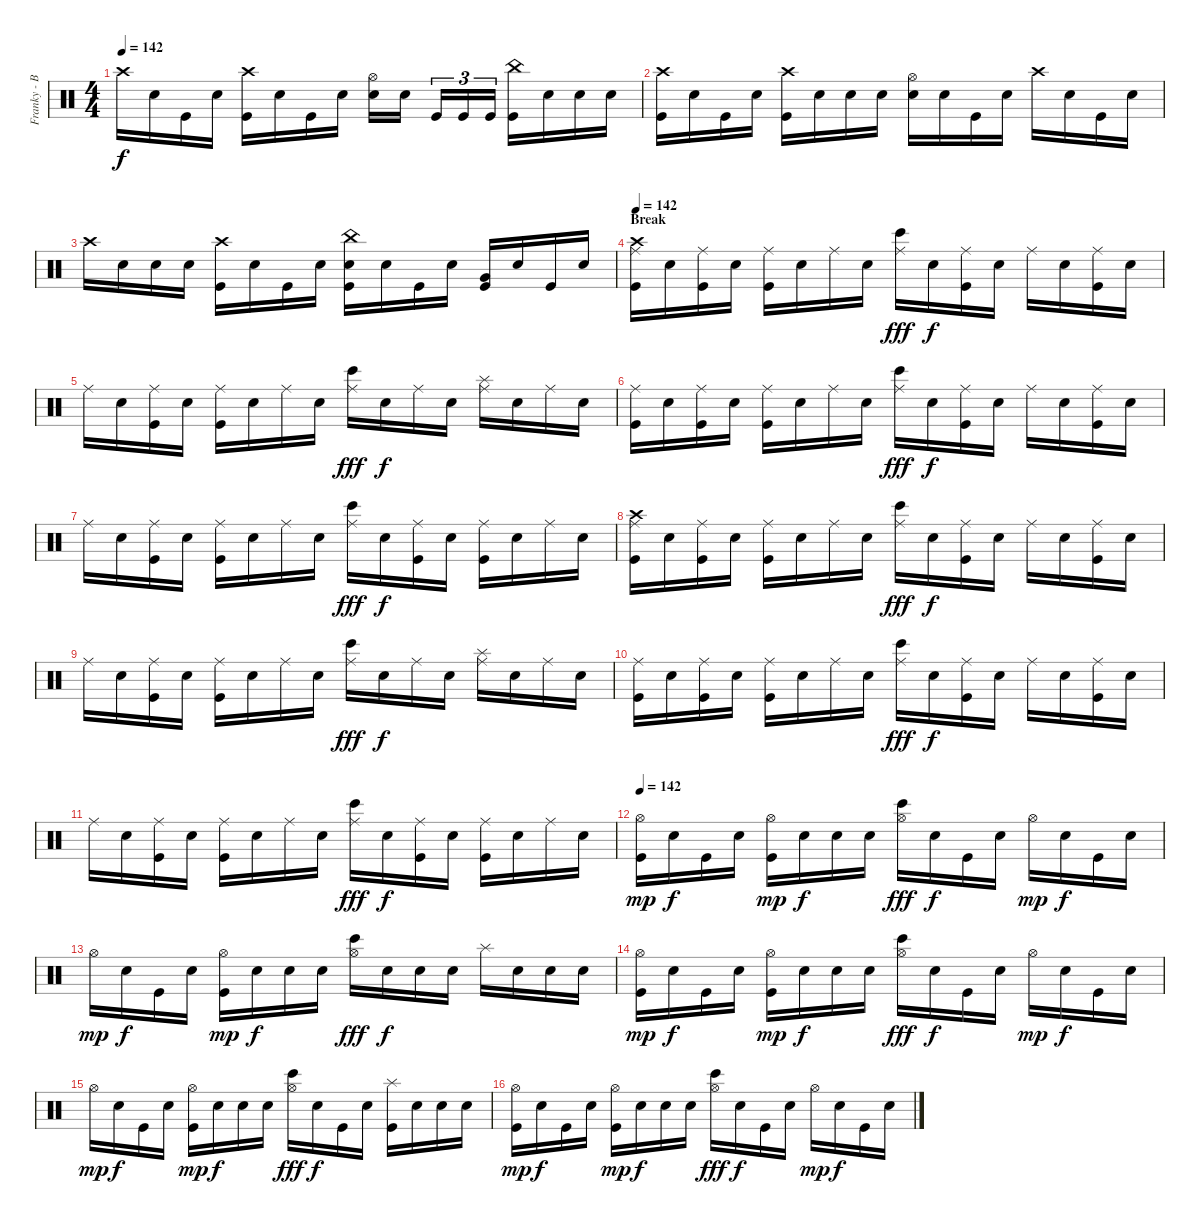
\track ("Franky - Batterie" "Franky - B") {instrument percussion}
\staff {score}
\articulation defaults
\ts (4 4)
\tempo 142
\clef neutral
\ks c "Crash high (hit)".16{dy f} "Snare (hit)".16 "Kick (hit)".16 "Snare (hit)".16
("Crash high (hit)" "Kick (hit)").16 "Snare (hit)".16 "Kick (hit)".16 "Snare (hit)".16 ("Hi-Hat (open)" "Electric Snare (hit)").16 "Snare (hit)".16 "Kick (hit)".16{tu (3 2)} "Kick (hit)".16{tu (3 2)} "Kick (hit)".16{tu (3 2)} ("China (hit)" "Kick (hit)").16 "Snare (hit)".16 "Snare (hit)".16 "Snare (hit)".16 |
("Crash high (hit)" "Kick (hit)").16 "Snare (hit)".16 "Kick (hit)".16 "Snare (hit)".16 ("Crash high (hit)" "Kick (hit)").16 "Snare (hit)".16 "Snare (hit)".16 "Snare (hit)".16 ("Hi-Hat (open)" "Electric Snare (hit)").16 "Snare (hit)".16 "Kick (hit)".16 "Snare (hit)".16 "Crash high (hit)".16 "Snare (hit)".16 "Kick (hit)".16 "Snare (hit)".16 |
"Crash high (hit)".16 "Snare (hit)".16 "Electric Snare (hit)".16 "Snare (hit)".16 ("Crash high (hit)" "Kick (hit)").16 "Snare (hit)".16 "Kick (hit)".16 "Snare (hit)".16 ("China (hit)" "Electric Snare (hit)" "Kick (hit)").16 "Snare (hit)".16 "Kick (hit)".16 "Snare (hit)".16 ("Very Low Tom (hit)" "Kick (hit)").16 "Snare (hit)".16 "Kick (hit)".16 "Snare (hit)".16 |
\section ("" "Break")
\tempo 142
("Ride (middle)" "Crash high (hit)" "Kick (hit)").16{volume 16 balance 8} "Snare (hit)".16 ("Ride (middle)" "Kick (hit)").16 "Snare (hit)".16 ("Ride (middle)" "Kick (hit)").16 "Snare (hit)".16 "Ride (middle)".16 "Snare (hit)".16 ("Ride (middle)" "Bongo High (hit)").16{dy fff} "Snare (hit)".16{dy f} ("Ride (middle)" "Kick (hit)").16 "Snare (hit)".16 "Ride (middle)".16 "Snare (hit)".16 ("Ride (middle)" "Kick (hit)").16 "Snare (hit)".16 |
"Ride (middle)".16 "Snare (hit)".16 ("Ride (middle)" "Kick (hit)").16 "Snare (hit)".16 ("Ride (middle)" "Kick (hit)").16 "Snare (hit)".16 "Ride (middle)".16 "Snare (hit)".16 ("Ride (middle)" "Bongo High (hit)").16{dy fff} "Snare (hit)".16{dy f} "Ride (middle)".16 "Snare (hit)".16 ("Ride (middle)" "Splash (hit)").16 "Snare (hit)".16 "Ride (middle)".16 "Snare (hit)".16 |
("Ride (middle)" "Kick (hit)").16 "Snare (hit)".16 ("Ride (middle)" "Kick (hit)").16 "Snare (hit)".16 ("Ride (middle)" "Kick (hit)").16 "Snare (hit)".16 "Ride (middle)".16 "Snare (hit)".16 ("Ride (middle)" "Bongo High (hit)").16{dy fff} "Snare (hit)".16{dy f} ("Ride (middle)" "Kick (hit)").16 "Snare (hit)".16 "Ride (middle)".16 "Snare (hit)".16 ("Ride (middle)" "Kick (hit)").16 "Snare (hit)".16 |
"Ride (middle)".16 "Snare (hit)".16 ("Ride (middle)" "Kick (hit)").16 "Snare (hit)".16 ("Ride (middle)" "Kick (hit)").16 "Snare (hit)".16 "Ride (middle)".16 "Snare (hit)".16 ("Ride (middle)" "Bongo High (hit)").16{dy fff} "Snare (hit)".16{dy f} ("Ride (middle)" "Kick (hit)").16 "Snare (hit)".16 ("Ride (middle)" "Kick (hit)").16 "Snare (hit)".16 "Ride (middle)".16 "Snare (hit)".16 |
("Ride (middle)" "Crash high (hit)" "Kick (hit)").16 "Snare (hit)".16 ("Ride (middle)" "Kick (hit)").16 "Snare (hit)".16 ("Ride (middle)" "Kick (hit)").16 "Snare (hit)".16 "Ride (middle)".16 "Snare (hit)".16 ("Ride (middle)" "Bongo High (hit)").16{dy fff} "Snare (hit)".16{dy f} ("Ride (middle)" "Kick (hit)").16 "Snare (hit)".16 "Ride (middle)".16 "Snare (hit)".16 ("Ride (middle)" "Kick (hit)").16 "Snare (hit)".16 |
"Ride (middle)".16 "Snare (hit)".16 ("Ride (middle)" "Kick (hit)").16 "Snare (hit)".16 ("Ride (middle)" "Kick (hit)").16 "Snare (hit)".16 "Ride (middle)".16 "Snare (hit)".16 ("Ride (middle)" "Bongo High (hit)").16{dy fff} "Snare (hit)".16{dy f} "Ride (middle)".16 "Snare (hit)".16 ("Ride (middle)" "Splash (hit)").16 "Snare (hit)".16 "Ride (middle)".16 "Snare (hit)".16 |
("Ride (middle)" "Kick (hit)").16 "Snare (hit)".16 ("Ride (middle)" "Kick (hit)").16 "Snare (hit)".16 ("Ride (middle)" "Kick (hit)").16 "Snare (hit)".16 "Ride (middle)".16 "Snare (hit)".16 ("Ride (middle)" "Bongo High (hit)").16{dy fff} "Snare (hit)".16{dy f} ("Ride (middle)" "Kick (hit)").16 "Snare (hit)".16 "Ride (middle)".16 "Snare (hit)".16 ("Ride (middle)" "Kick (hit)").16 "Snare (hit)".16 |
"Ride (middle)".16 "Snare (hit)".16 ("Ride (middle)" "Kick (hit)").16 "Snare (hit)".16 ("Ride (middle)" "Kick (hit)").16 "Snare (hit)".16 "Ride (middle)".16 "Snare (hit)".16 ("Ride (middle)" "Bongo High (hit)").16{dy fff} "Snare (hit)".16{dy f} ("Ride (middle)" "Kick (hit)").16 "Snare (hit)".16 ("Ride (middle)" "Kick (hit)").16 "Snare (hit)".16 "Ride (middle)".16 "Snare (hit)".16 |
\section ("" "")
\tempo 142
("Hi-Hat (open)" "Kick (hit)").16{dy mp volume 16 balance 8} "Snare (hit)".16{dy f} "Kick (hit)".16 "Snare (hit)".16 ("Hi-Hat (open)" "Kick (hit)").16{dy mp} "Snare (hit)".16{dy f} "Snare (hit)".16 "Snare (hit)".16 ("Hi-Hat (open)" "Bongo High (hit)").16{dy fff} "Snare (hit)".16{dy f} "Kick (hit)".16 "Snare (hit)".16 "Hi-Hat (open)".16{dy mp} "Snare (hit)".16{dy f} "Kick (hit)".16 "Snare (hit)".16 |
"Hi-Hat (open)".16{dy mp} "Snare (hit)".16{dy f} "Kick (hit)".16 "Snare (hit)".16 ("Hi-Hat (open)" "Kick (hit)").16{dy mp} "Snare (hit)".16{dy f} "Snare (hit)".16 "Snare (hit)".16 ("Hi-Hat (open)" "Bongo High (hit)").16{dy fff} "Snare (hit)".16{dy f} "Snare (hit)".16 "Snare (hit)".16 "Splash (hit)".16 "Snare (hit)".16 "Snare (hit)".16 "Snare (hit)".16 |
("Hi-Hat (open)" "Kick (hit)").16{dy mp} "Snare (hit)".16{dy f} "Kick (hit)".16 "Snare (hit)".16 ("Hi-Hat (open)" "Kick (hit)").16{dy mp} "Snare (hit)".16{dy f} "Snare (hit)".16 "Snare (hit)".16 ("Hi-Hat (open)" "Bongo High (hit)").16{dy fff} "Snare (hit)".16{dy f} "Kick (hit)".16 "Snare (hit)".16 "Hi-Hat (open)".16{dy mp} "Snare (hit)".16{dy f} "Kick (hit)".16 "Snare (hit)".16 |
"Hi-Hat (open)".16{dy mp} "Snare (hit)".16{dy f} "Kick (hit)".16 "Snare (hit)".16 ("Hi-Hat (open)" "Kick (hit)").16{dy mp} "Snare (hit)".16{dy f} "Snare (hit)".16 "Snare (hit)".16 ("Hi-Hat (open)" "Bongo High (hit)").16{dy fff} "Snare (hit)".16{dy f} "Kick (hit)".16 "Snare (hit)".16 ("Splash (hit)" "Kick (hit)").16 "Snare (hit)".16 "Snare (hit)".16 "Snare (hit)".16 |
("Hi-Hat (open)" "Kick (hit)").16{dy mp} "Snare (hit)".16{dy f} "Kick (hit)".16 "Snare (hit)".16 ("Hi-Hat (open)" "Kick (hit)").16{dy mp} "Snare (hit)".16{dy f} "Snare (hit)".16 "Snare (hit)".16 ("Hi-Hat (open)" "Bongo High (hit)").16{dy fff} "Snare (hit)".16{dy f} "Kick (hit)".16 "Snare (hit)".16 "Hi-Hat (open)".16{dy mp} "Snare (hit)".16{dy f} "Kick (hit)".16 "Snare (hit)".16
